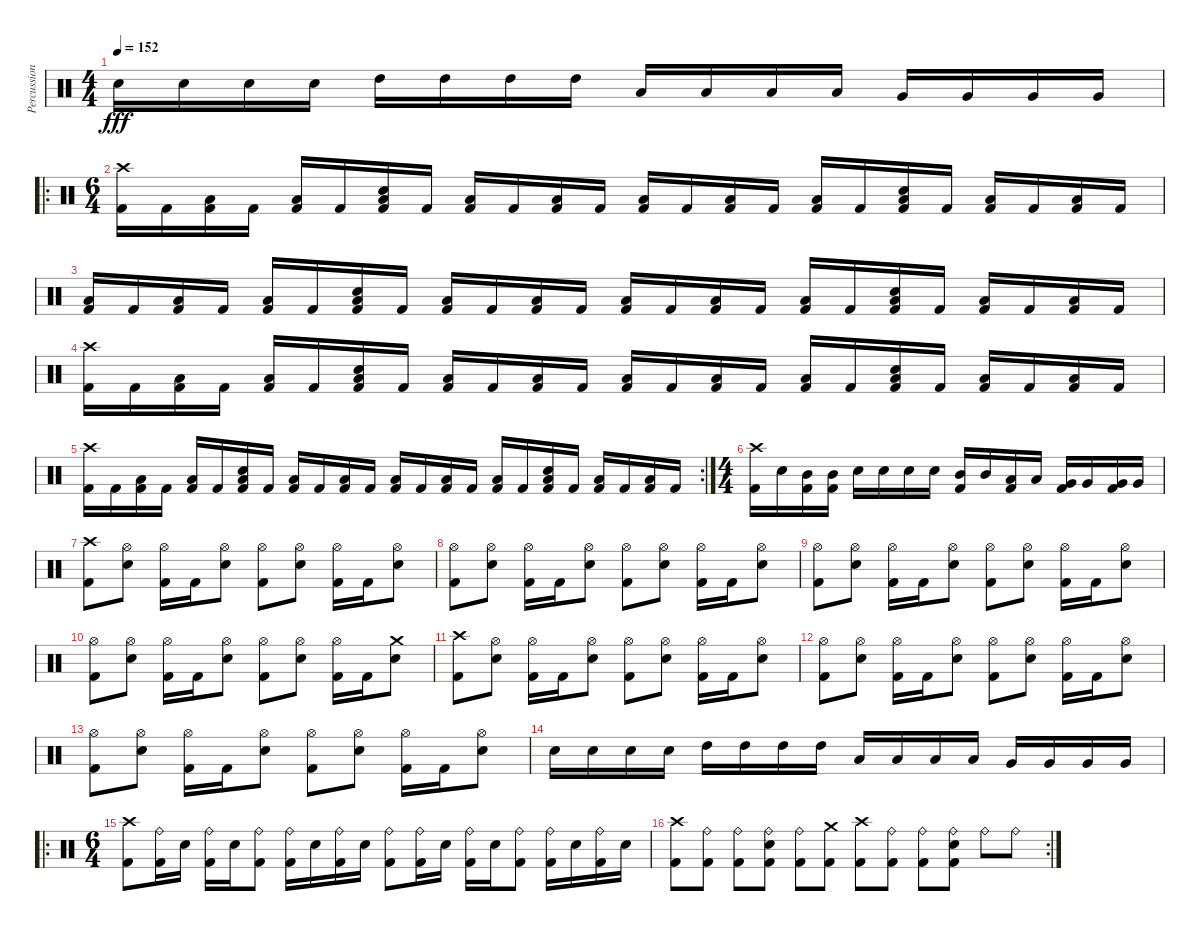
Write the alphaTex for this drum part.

\track ("Percussion" "Percussion") {instrument percussion}
\staff {score}
\articulation defaults
\ts (4 4)
\tempo 152
\clef neutral
\ks c "Snare (hit) 2".16{dy fff} "Snare (hit) 2".16 "Snare (hit) 2".16 "Snare (hit) 2".16 "High Tom (hit)".16 "High Tom (hit)".16 "High Tom (hit)".16 "High Tom (hit)".16 "Low Tom (hit)".16 "Low Tom (hit)".16 "Low Tom (hit)".16 "Low Tom (hit)".16 "Very Low Tom (hit)".16 "Very Low Tom (hit)".16 "Very Low Tom (hit)".16 "Very Low Tom (hit)".16
|
\ro
\ts (6 4)
("Crash high (hit)" "Kick (hit) 2").16 "Kick (hit) 2".16 ("Low Tom (hit)" "Kick (hit) 2").16 "Kick (hit) 2".16 ("Low Tom (hit)" "Kick (hit) 2").16 "Kick (hit) 2".16 ("Snare (hit) 2" "Low Tom (hit)" "Kick (hit) 2").16 "Kick (hit) 2".16 ("Low Tom (hit)" "Kick (hit) 2").16 "Kick (hit) 2".16 ("Low Tom (hit)" "Kick (hit) 2").16 "Kick (hit) 2".16 ("Low Tom (hit)" "Kick (hit) 2").16 "Kick (hit) 2".16 ("Low Tom (hit)" "Kick (hit) 2").16 "Kick (hit) 2".16 ("Low Tom (hit)" "Kick (hit) 2").16 "Kick (hit) 2".16 ("Snare (hit) 2" "Low Tom (hit)" "Kick (hit) 2").16 "Kick (hit) 2".16 ("Low Tom (hit)" "Kick (hit) 2").16 "Kick (hit) 2".16 ("Low Tom (hit)" "Kick (hit) 2").16 "Kick (hit) 2".16 |
("Low Tom (hit)" "Kick (hit) 2").16 "Kick (hit) 2".16 ("Low Tom (hit)" "Kick (hit) 2").16 "Kick (hit) 2".16 ("Low Tom (hit)" "Kick (hit) 2").16 "Kick (hit) 2".16 ("Snare (hit) 2" "Low Tom (hit)" "Kick (hit) 2").16 "Kick (hit) 2".16 ("Low Tom (hit)" "Kick (hit) 2").16 "Kick (hit) 2".16 ("Low Tom (hit)" "Kick (hit) 2").16 "Kick (hit) 2".16 ("Low Tom (hit)" "Kick (hit) 2").16 "Kick (hit) 2".16 ("Low Tom (hit)" "Kick (hit) 2").16 "Kick (hit) 2".16 ("Low Tom (hit)" "Kick (hit) 2").16 "Kick (hit) 2".16 ("Snare (hit) 2" "Low Tom (hit)" "Kick (hit) 2").16 "Kick (hit) 2".16 ("Low Tom (hit)" "Kick (hit) 2").16 "Kick (hit) 2".16 ("Low Tom (hit)" "Kick (hit) 2").16 "Kick (hit) 2".16 |
("Crash high (hit)" "Kick (hit) 2").16 "Kick (hit) 2".16 ("Low Tom (hit)" "Kick (hit) 2").16 "Kick (hit) 2".16 ("Low Tom (hit)" "Kick (hit) 2").16 "Kick (hit) 2".16 ("Snare (hit) 2" "Low Tom (hit)" "Kick (hit) 2").16 "Kick (hit) 2".16 ("Low Tom (hit)" "Kick (hit) 2").16 "Kick (hit) 2".16 ("Low Tom (hit)" "Kick (hit) 2").16 "Kick (hit) 2".16 ("Low Tom (hit)" "Kick (hit) 2").16 "Kick (hit) 2".16 ("Low Tom (hit)" "Kick (hit) 2").16 "Kick (hit) 2".16 ("Low Tom (hit)" "Kick (hit) 2").16 "Kick (hit) 2".16 ("Snare (hit) 2" "Low Tom (hit)" "Kick (hit) 2").16 "Kick (hit) 2".16 ("Low Tom (hit)" "Kick (hit) 2").16 "Kick (hit) 2".16 ("Low Tom (hit)" "Kick (hit) 2").16 "Kick (hit) 2".16 |
\rc 2
("Crash high (hit)" "Kick (hit) 2").16 "Kick (hit) 2".16 ("Low Tom (hit)" "Kick (hit) 2").16 "Kick (hit) 2".16 ("Low Tom (hit)" "Kick (hit) 2").16 "Kick (hit) 2".16 ("Snare (hit) 2" "Low Tom (hit)" "Kick (hit) 2").16 "Kick (hit) 2".16 ("Low Tom (hit)" "Kick (hit) 2").16 "Kick (hit) 2".16 ("Low Tom (hit)" "Kick (hit) 2").16 "Kick (hit) 2".16 ("Low Tom (hit)" "Kick (hit) 2").16 "Kick (hit) 2".16 ("Low Tom (hit)" "Kick (hit) 2").16 "Kick (hit) 2".16 ("Low Tom (hit)" "Kick (hit) 2").16 "Kick (hit) 2".16 ("Snare (hit) 2" "Low Tom (hit)" "Kick (hit) 2").16 "Kick (hit) 2".16 ("Low Tom (hit)" "Kick (hit) 2").16 "Kick (hit) 2".16 ("Low Tom (hit)" "Kick (hit) 2").16 "Kick (hit) 2".16 |
\ts (4 4)
("Crash high (hit)" "Kick (hit) 2").16 "Snare (hit) 2".16 ("Mid Tom (hit)" "Kick (hit) 2").16 ("Mid Tom (hit)" "Kick (hit) 2").16 "Snare (hit) 2".16 "Snare (hit) 2".16 "Snare (hit) 2".16 "Snare (hit) 2".16 ("Kick (hit) 2" "Mid Tom (hit)").16 "Mid Tom (hit)".16 ("Kick (hit) 2" "Low Tom (hit)").16 "Low Tom (hit)".16 ("Kick (hit) 2" "Very Low Tom (hit)").16 "Very Low Tom (hit)".16 ("Kick (hit) 2" "Very Low Tom (hit)").16 "Very Low Tom (hit)".16 |
("Crash high (hit)" "Kick (hit) 2").8 ("Hi-Hat (open)" "Snare (hit) 2").8 ("Hi-Hat (open)" "Kick (hit) 2").16 "Kick (hit) 2".16 ("Hi-Hat (open)" "Snare (hit) 2").8 ("Hi-Hat (open)" "Kick (hit) 2").8 ("Hi-Hat (open)" "Snare (hit) 2").8 ("Hi-Hat (open)" "Kick (hit) 2").16 "Kick (hit) 2".16 ("Hi-Hat (open)" "Snare (hit) 2").8 |
("Hi-Hat (open)" "Kick (hit) 2").8 ("Hi-Hat (open)" "Snare (hit) 2").8 ("Hi-Hat (open)" "Kick (hit) 2").16 "Kick (hit) 2".16 ("Hi-Hat (open)" "Snare (hit) 2").8 ("Hi-Hat (open)" "Kick (hit) 2").8 ("Hi-Hat (open)" "Snare (hit) 2").8 ("Hi-Hat (open)" "Kick (hit) 2").16 "Kick (hit) 2".16 ("Hi-Hat (open)" "Snare (hit) 2").8 |
("Hi-Hat (open)" "Kick (hit) 2").8 ("Hi-Hat (open)" "Snare (hit) 2").8 ("Hi-Hat (open)" "Kick (hit) 2").16 "Kick (hit) 2".16 ("Hi-Hat (open)" "Snare (hit) 2").8 ("Hi-Hat (open)" "Kick (hit) 2").8 ("Hi-Hat (open)" "Snare (hit) 2").8 ("Hi-Hat (open)" "Kick (hit) 2").16 "Kick (hit) 2".16 ("Hi-Hat (open)" "Snare (hit) 2").8 |
("Hi-Hat (open)" "Kick (hit) 2").8 ("Hi-Hat (open)" "Snare (hit) 2").8 ("Hi-Hat (open)" "Kick (hit) 2").16 "Kick (hit) 2".16 ("Hi-Hat (open)" "Snare (hit) 2").8 ("Hi-Hat (open)" "Kick (hit) 2").8 ("Hi-Hat (open)" "Snare (hit) 2").8 ("Hi-Hat (open)" "Kick (hit) 2").16 "Kick (hit) 2".16 ("Crash medium (hit)" "Snare (hit) 2").8 |
("Crash high (hit)" "Kick (hit) 2").8 ("Hi-Hat (open)" "Snare (hit) 2").8 ("Hi-Hat (open)" "Kick (hit) 2").16 "Kick (hit) 2".16 ("Hi-Hat (open)" "Snare (hit) 2").8 ("Hi-Hat (open)" "Kick (hit) 2").8 ("Hi-Hat (open)" "Snare (hit) 2").8 ("Hi-Hat (open)" "Kick (hit) 2").16 "Kick (hit) 2".16 ("Hi-Hat (open)" "Snare (hit) 2").8 |
("Hi-Hat (open)" "Kick (hit) 2").8 ("Hi-Hat (open)" "Snare (hit) 2").8 ("Hi-Hat (open)" "Kick (hit) 2").16 "Kick (hit) 2".16 ("Hi-Hat (open)" "Snare (hit) 2").8 ("Hi-Hat (open)" "Kick (hit) 2").8 ("Hi-Hat (open)" "Snare (hit) 2").8 ("Hi-Hat (open)" "Kick (hit) 2").16 "Kick (hit) 2".16 ("Hi-Hat (open)" "Snare (hit) 2").8 |
("Hi-Hat (open)" "Kick (hit) 2").8 ("Hi-Hat (open)" "Snare (hit) 2").8 ("Hi-Hat (open)" "Kick (hit) 2").16 "Kick (hit) 2".16 ("Hi-Hat (open)" "Snare (hit) 2").8 ("Hi-Hat (open)" "Kick (hit) 2").8 ("Hi-Hat (open)" "Snare (hit) 2").8 ("Hi-Hat (open)" "Kick (hit) 2").16 "Kick (hit) 2".16 ("Hi-Hat (open)" "Snare (hit) 2").8 |
"Snare (hit) 2".16 "Snare (hit) 2".16 "Snare (hit) 2".16 "Snare (hit) 2".16 "High Tom (hit)".16 "High Tom (hit)".16 "High Tom (hit)".16 "High Tom (hit)".16 "Low Tom (hit)".16 "Low Tom (hit)".16 "Low Tom (hit)".16 "Low Tom (hit)".16 "Very Low Tom (hit)".16 "Very Low Tom (hit)".16 "Very Low Tom (hit)".16 "Very Low Tom (hit)".16 |
\ro
\ts (6 4)
("Crash high (hit)" "Kick (hit) 2").8 ("Ride (bell)" "Kick (hit) 2").16 "Snare (hit) 2".16 ("Ride (bell)" "Kick (hit) 2").16 "Snare (hit) 2".16 ("Ride (bell)" "Kick (hit) 2").8 ("Ride (bell)" "Kick (hit) 2").16 "Snare (hit) 2".16 ("Ride (bell)" "Kick (hit) 2").16 "Snare (hit) 2".16 ("Ride (bell)" "Kick (hit) 2").8 ("Ride (bell)" "Kick (hit) 2").16 "Snare (hit) 2".16 ("Ride (bell)" "Kick (hit) 2").16 "Snare (hit) 2".16 ("Ride (bell)" "Kick (hit) 2").8 ("Ride (bell)" "Kick (hit) 2").16 "Snare (hit) 2".16 ("Ride (bell)" "Kick (hit) 2").16 "Snare (hit) 2".16 |
\rc 2
("Crash high (hit)" "Kick (hit) 2").8 ("Ride (bell)" "Kick (hit) 2").8 ("Ride (bell)" "Kick (hit) 2").8 ("Ride (bell)" "Kick (hit) 2" "Snare (hit) 2").8 ("Ride (bell)" "Kick (hit) 2").8 ("Crash medium (hit)" "Kick (hit) 2").8 ("Crash high (hit)" "Kick (hit) 2").8 ("Ride (bell)" "Kick (hit) 2").8 ("Ride (bell)" "Kick (hit) 2").8 ("Ride (bell)" "Kick (hit) 2" "Snare (hit) 2").8 "Ride (bell)".8 "Ride (bell)".8
